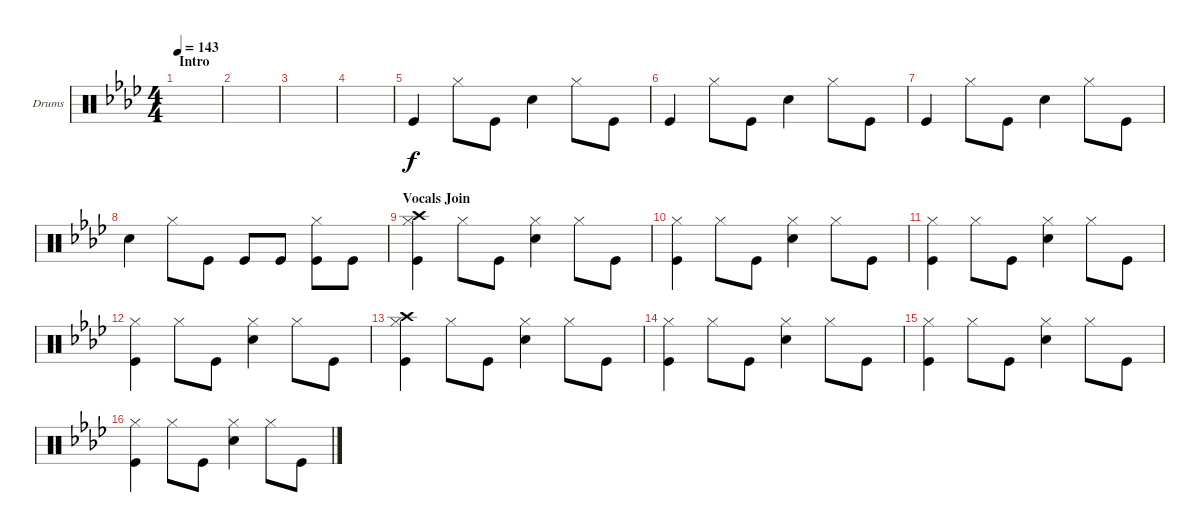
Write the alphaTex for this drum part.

\defaultSystemsLayout 4
\bracketExtendMode groupsimilarinstruments
\firstSystemTrackNameOrientation horizontal
\otherSystemsTrackNameOrientation horizontal
\track ("Drumkit" "Drums") {instrument percussion}
\staff {score}
\articulation defaults
\ts (4 4)
\section ("" "Intro")
\tempo 143
\clef neutral
\ks fminor
|
|
|
|
"Kick (hit)".4 "Hi-Hat (closed)".8 "Kick (hit)".8 "Snare (hit) 2".4 "Hi-Hat (closed)".8 "Kick (hit)".8 |
"Kick (hit)".4 "Hi-Hat (closed)".8 "Kick (hit)".8 "Snare (hit) 2".4 "Hi-Hat (closed)".8 "Kick (hit)".8 |
"Kick (hit)".4 "Hi-Hat (closed)".8 "Kick (hit)".8 "Snare (hit) 2".4 "Hi-Hat (closed)".8 "Kick (hit)".8 |
"Snare (hit) 2".4 "Hi-Hat (closed)".8 "Kick (hit)".8 "Kick (hit)".8 "Kick (hit)".8 ("Kick (hit)" "Hi-Hat (closed)").8 "Kick (hit)".8 |
\section ("" "Vocals Join")
("Kick (hit)" "Hi-Hat (closed)" "Crash high (hit)").4 "Hi-Hat (closed)".8 "Kick (hit)".8 ("Snare (hit) 2" "Hi-Hat (closed)").4 "Hi-Hat (closed)".8 "Kick (hit)".8 |
("Kick (hit)" "Hi-Hat (closed)").4 "Hi-Hat (closed)".8 "Kick (hit)".8 ("Snare (hit) 2" "Hi-Hat (closed)").4 "Hi-Hat (closed)".8 "Kick (hit)".8 |
("Kick (hit)" "Hi-Hat (closed)").4 "Hi-Hat (closed)".8 "Kick (hit)".8 ("Snare (hit) 2" "Hi-Hat (closed)").4 "Hi-Hat (closed)".8 "Kick (hit)".8 |
("Kick (hit)" "Hi-Hat (closed)").4 "Hi-Hat (closed)".8 "Kick (hit)".8 ("Snare (hit) 2" "Hi-Hat (closed)").4 "Hi-Hat (closed)".8 "Kick (hit)".8 |
("Kick (hit)" "Hi-Hat (closed)" "Crash high (hit)").4 "Hi-Hat (closed)".8 "Kick (hit)".8 ("Snare (hit) 2" "Hi-Hat (closed)").4 "Hi-Hat (closed)".8 "Kick (hit)".8 |
("Kick (hit)" "Hi-Hat (closed)").4 "Hi-Hat (closed)".8 "Kick (hit)".8 ("Snare (hit) 2" "Hi-Hat (closed)").4 "Hi-Hat (closed)".8 "Kick (hit)".8 |
("Kick (hit)" "Hi-Hat (closed)").4 "Hi-Hat (closed)".8 "Kick (hit)".8 ("Snare (hit) 2" "Hi-Hat (closed)").4 "Hi-Hat (closed)".8 "Kick (hit)".8 |
("Kick (hit)" "Hi-Hat (closed)").4 "Hi-Hat (closed)".8 "Kick (hit)".8 ("Snare (hit) 2" "Hi-Hat (closed)").4 "Hi-Hat (closed)".8 "Kick (hit)".8
